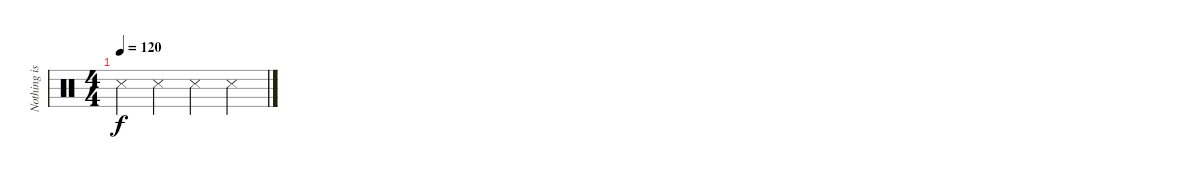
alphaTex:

\track ("Nothing is drummer" "Nothing is") {instrument percussion}
\staff {score}
\articulation defaults
\ts (4 4)
\tempo 120
\clef neutral
\ks c "Metronome (hit)".4{dy f} "Metronome (hit)".4 "Metronome (hit)".4 "Metronome (hit)".4
